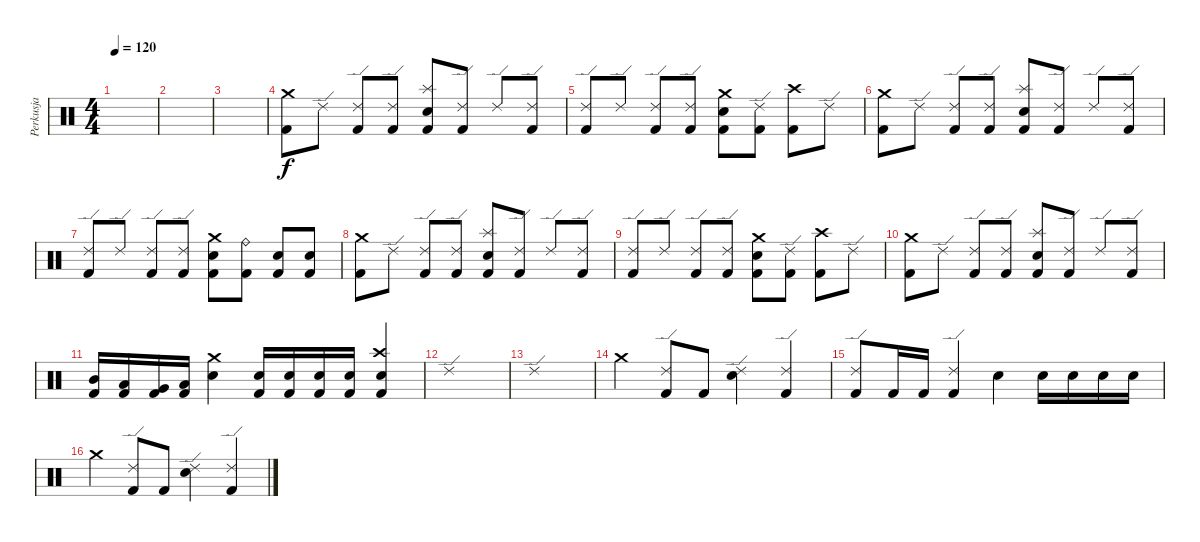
\track ("Perkusja" "Perkusja") {instrument percussion}
\staff {score}
\articulation defaults
\ts (4 4)
\tempo 120
\clef neutral
\ks c
|
|
|
("Crash medium (hit)" "Kick (hit) 2").8{volume 16} "Ride (edge) 2".8 ("Ride (edge) 2" "Kick (hit) 2").8 ("Ride (edge) 2" "Kick (hit) 2").8 ("Splash (hit)" "Kick (hit) 2" "Electric Snare (hit)").8 ("Ride (edge) 2" "Kick (hit) 2").8 "Ride (edge) 2".8 ("Ride (edge) 2" "Kick (hit) 2").8 |
("Ride (edge) 2" "Kick (hit) 2").8 "Ride (edge) 2".8 ("Ride (edge) 2" "Kick (hit) 2").8 ("Ride (edge) 2" "Kick (hit) 2").8 ("Crash medium (hit)" "Kick (hit) 2" "Electric Snare (hit)").8 ("Ride (edge) 2" "Kick (hit) 2").8 ("Crash high (hit)" "Kick (hit) 2").8 "Ride (edge) 2".8 |
("Crash medium (hit)" "Kick (hit) 2").8 "Ride (edge) 2".8 ("Ride (edge) 2" "Kick (hit) 2").8 ("Ride (edge) 2" "Kick (hit) 2").8 ("Splash (hit)" "Kick (hit) 2" "Electric Snare (hit)").8 ("Ride (edge) 2" "Kick (hit) 2").8 "Ride (edge) 2".8 ("Ride (edge) 2" "Kick (hit) 2").8 |
("Ride (edge) 2" "Kick (hit) 2").8 "Ride (edge) 2".8 ("Ride (edge) 2" "Kick (hit) 2").8 ("Ride (edge) 2" "Kick (hit) 2").8 ("Crash medium (hit)" "Kick (hit) 2" "Electric Snare (hit)").8 ("Ride (bell)" "Kick (hit) 2").8 ("Electric Snare (hit)" "Kick (hit) 2").8 ("Electric Snare (hit)" "Kick (hit) 2").8 |
("Crash medium (hit)" "Kick (hit) 2").8{volume 16} "Ride (edge) 2".8 ("Ride (edge) 2" "Kick (hit) 2").8 ("Ride (edge) 2" "Kick (hit) 2").8 ("Splash (hit)" "Kick (hit) 2" "Electric Snare (hit)").8 ("Ride (edge) 2" "Kick (hit) 2").8 "Ride (edge) 2".8 ("Ride (edge) 2" "Kick (hit) 2").8 |
("Ride (edge) 2" "Kick (hit) 2").8 "Ride (edge) 2".8 ("Ride (edge) 2" "Kick (hit) 2").8 ("Ride (edge) 2" "Kick (hit) 2").8 ("Crash medium (hit)" "Kick (hit) 2" "Electric Snare (hit)").8 ("Ride (edge) 2" "Kick (hit) 2").8 ("Crash high (hit)" "Kick (hit) 2").8 "Ride (edge) 2".8 |
("Crash medium (hit)" "Kick (hit) 2").8 "Ride (edge) 2".8 ("Ride (edge) 2" "Kick (hit) 2").8 ("Ride (edge) 2" "Kick (hit) 2").8 ("Splash (hit)" "Kick (hit) 2" "Electric Snare (hit)").8 ("Ride (edge) 2" "Kick (hit) 2").8 "Ride (edge) 2".8 ("Ride (edge) 2" "Kick (hit) 2").8 |
("Mid Tom (hit)" "Kick (hit) 2").16 ("Low Tom (hit)" "Kick (hit) 2").16 ("Very Low Tom (hit)" "Kick (hit) 2").16 ("Low Floor Tom (hit)" "Kick (hit) 2").16 ("Crash medium (hit)" "Electric Snare (hit)").4 ("Electric Snare (hit)" "Kick (hit) 2").16 ("Electric Snare (hit)" "Kick (hit) 2").16 ("Electric Snare (hit)" "Kick (hit) 2").16 ("Electric Snare (hit)" "Kick (hit) 2").16 ("Crash high (hit)" "Snare (hit) 2" "Kick (hit) 2").4 |
"Ride (edge) 2".1 |
"Ride (edge) 2".1 |
"Crash medium (hit)".4 ("Ride (edge) 2" "Kick (hit) 2").8 "Kick (hit) 2".8 ("Ride (edge) 2" "Electric Snare (hit)").4 ("Ride (edge) 2" "Kick (hit) 2").4 |
("Ride (edge) 2" "Kick (hit) 2").8 "Kick (hit) 2".16 "Kick (hit) 2".16 ("Ride (edge) 2" "Kick (hit) 2").4 "Electric Snare (hit)".4 "Electric Snare (hit)".16 "Electric Snare (hit)".16 "Electric Snare (hit)".16 "Electric Snare (hit)".16 |
"Crash medium (hit)".4 ("Ride (edge) 2" "Kick (hit) 2").8 "Kick (hit) 2".8 ("Ride (edge) 2" "Electric Snare (hit)").4 ("Ride (edge) 2" "Kick (hit) 2").4
